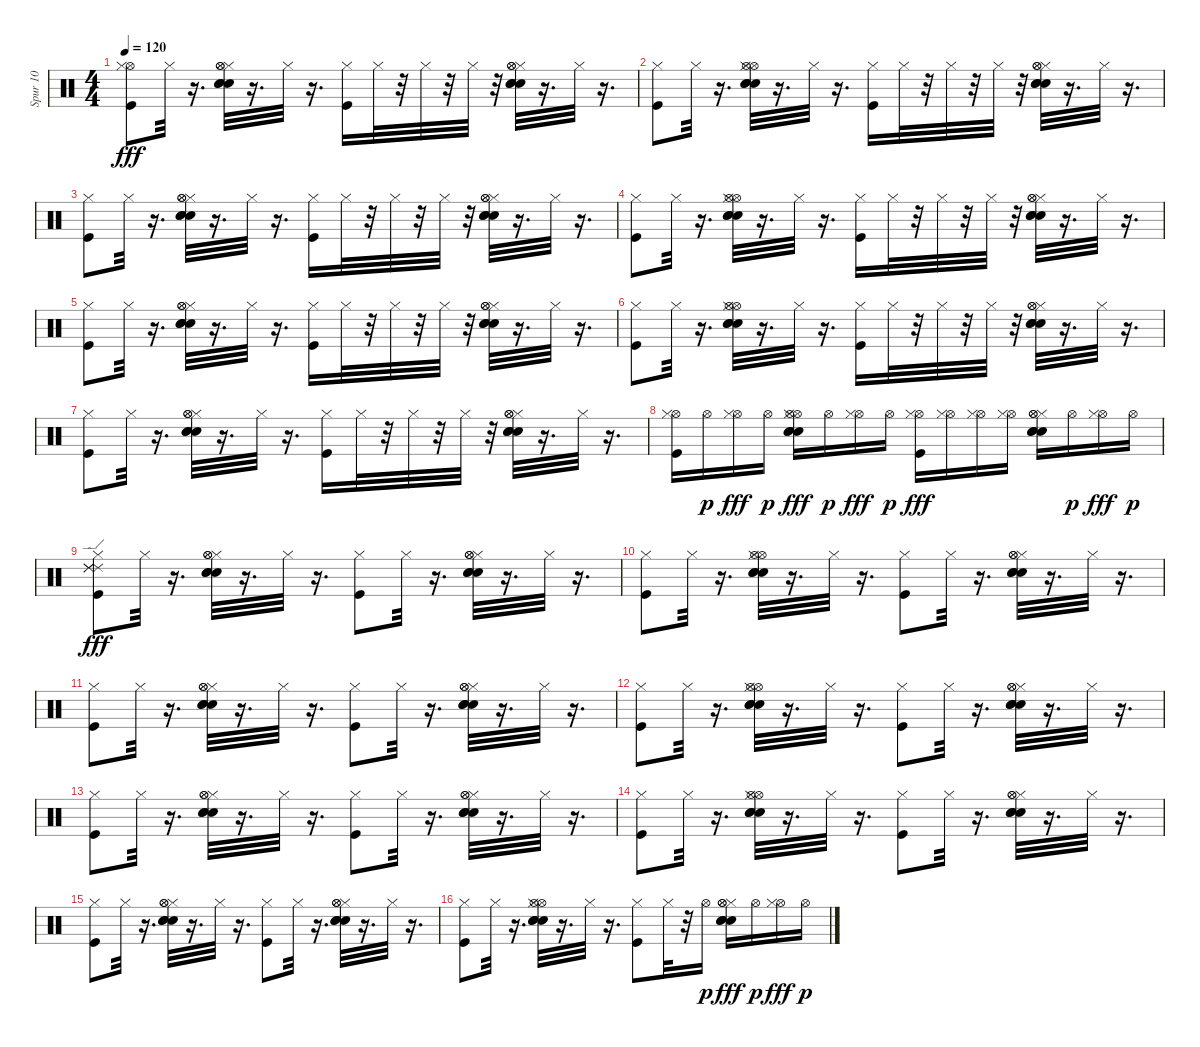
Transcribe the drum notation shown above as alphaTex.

\track ("Spur 10" "Spur 10") {instrument percussion}
\staff {score}
\articulation defaults
\ts (4 4)
\tempo 120
\clef neutral
\ks c
("Hi-Hat (open)" "Kick (hit)" "Hi-Hat (closed)").8{dy fff} "Hi-Hat (closed)".32 r.16{d} ("Snare (hit) 2" "Snare (hit) 2" "Hi-Hat (closed)" "Snare (hit) 2" "Hi-Hat (open)" "Hi-Hat (open)").32 r.16{d} "Hi-Hat (closed)".32 r.16{d} ("Hi-Hat (closed)" "Kick (hit)").16 "Hi-Hat (closed)".32 r.32 "Hi-Hat (closed)".32 r.32 "Hi-Hat (closed)".32 r.32 ("Hi-Hat (closed)" "Snare (hit) 2" "Hi-Hat (open)" "Hi-Hat (open)" "Snare (hit) 2" "Snare (hit) 2").32 r.16{d} "Hi-Hat (closed)".32 r.16{d} |
("Hi-Hat (closed)" "Kick (hit)").8 "Hi-Hat (closed)".32 r.16{d} ("Hi-Hat (open)" "Hi-Hat (closed)" "Snare (hit) 2" "Hi-Hat (open)" "Snare (hit) 2" "Snare (hit) 2").32 r.16{d} "Hi-Hat (closed)".32 r.16{d} ("Kick (hit)" "Hi-Hat (closed)").16 "Hi-Hat (closed)".32 r.32 "Hi-Hat (closed)".32 r.32 "Hi-Hat (closed)".32 r.32 ("Snare (hit) 2" "Hi-Hat (closed)" "Hi-Hat (open)" "Snare (hit) 2" "Hi-Hat (open)" "Snare (hit) 2").32 r.16{d} "Hi-Hat (closed)".32 r.16{d} |
("Kick (hit)" "Hi-Hat (closed)").8 "Hi-Hat (closed)".32 r.16{d} ("Snare (hit) 2" "Snare (hit) 2" "Hi-Hat (closed)" "Snare (hit) 2" "Hi-Hat (open)" "Hi-Hat (open)").32 r.16{d} "Hi-Hat (closed)".32 r.16{d} ("Hi-Hat (closed)" "Kick (hit)").16 "Hi-Hat (closed)".32 r.32 "Hi-Hat (closed)".32 r.32 "Hi-Hat (closed)".32 r.32 ("Hi-Hat (closed)" "Snare (hit) 2" "Hi-Hat (open)" "Hi-Hat (open)" "Snare (hit) 2" "Snare (hit) 2").32 r.16{d} "Hi-Hat (closed)".32 r.16{d} |
("Hi-Hat (closed)" "Kick (hit)").8 "Hi-Hat (closed)".32 r.16{d} ("Hi-Hat (open)" "Hi-Hat (closed)" "Snare (hit) 2" "Hi-Hat (open)" "Snare (hit) 2" "Snare (hit) 2").32 r.16{d} "Hi-Hat (closed)".32 r.16{d} ("Kick (hit)" "Hi-Hat (closed)").16 "Hi-Hat (closed)".32 r.32 "Hi-Hat (closed)".32 r.32 "Hi-Hat (closed)".32 r.32 ("Snare (hit) 2" "Hi-Hat (closed)" "Hi-Hat (open)" "Snare (hit) 2" "Hi-Hat (open)" "Snare (hit) 2").32 r.16{d} "Hi-Hat (closed)".32 r.16{d} |
("Kick (hit)" "Hi-Hat (closed)").8 "Hi-Hat (closed)".32 r.16{d} ("Snare (hit) 2" "Snare (hit) 2" "Hi-Hat (closed)" "Snare (hit) 2" "Hi-Hat (open)" "Hi-Hat (open)").32 r.16{d} "Hi-Hat (closed)".32 r.16{d} ("Hi-Hat (closed)" "Kick (hit)").16 "Hi-Hat (closed)".32 r.32 "Hi-Hat (closed)".32 r.32 "Hi-Hat (closed)".32 r.32 ("Hi-Hat (closed)" "Snare (hit) 2" "Hi-Hat (open)" "Hi-Hat (open)" "Snare (hit) 2" "Snare (hit) 2").32 r.16{d} "Hi-Hat (closed)".32 r.16{d} |
("Hi-Hat (closed)" "Kick (hit)").8 "Hi-Hat (closed)".32 r.16{d} ("Hi-Hat (open)" "Hi-Hat (closed)" "Snare (hit) 2" "Hi-Hat (open)" "Snare (hit) 2" "Snare (hit) 2").32 r.16{d} "Hi-Hat (closed)".32 r.16{d} ("Kick (hit)" "Hi-Hat (closed)").16 "Hi-Hat (closed)".32 r.32 "Hi-Hat (closed)".32 r.32 "Hi-Hat (closed)".32 r.32 ("Snare (hit) 2" "Hi-Hat (closed)" "Hi-Hat (open)" "Snare (hit) 2" "Hi-Hat (open)" "Snare (hit) 2").32 r.16{d} "Hi-Hat (closed)".32 r.16{d} |
("Kick (hit)" "Hi-Hat (closed)").8 "Hi-Hat (closed)".32 r.16{d} ("Snare (hit) 2" "Snare (hit) 2" "Hi-Hat (closed)" "Snare (hit) 2" "Hi-Hat (open)" "Hi-Hat (open)").32 r.16{d} "Hi-Hat (closed)".32 r.16{d} ("Hi-Hat (closed)" "Kick (hit)").16 "Hi-Hat (closed)".32 r.32 "Hi-Hat (closed)".32 r.32 "Hi-Hat (closed)".32 r.32 ("Hi-Hat (closed)" "Snare (hit) 2" "Hi-Hat (open)" "Hi-Hat (open)" "Snare (hit) 2" "Snare (hit) 2").32 r.16{d} "Hi-Hat (closed)".32 r.16{d} |
("Hi-Hat (open)" "Hi-Hat (closed)" "Kick (hit)").16 "Hi-Hat (open)".16{dy p} ("Hi-Hat (open)" "Hi-Hat (closed)").16{dy fff} "Hi-Hat (open)".16{dy p} ("Hi-Hat (open)" "Hi-Hat (closed)" "Snare (hit) 2" "Hi-Hat (open)" "Snare (hit) 2" "Snare (hit) 2").16{dy fff} "Hi-Hat (open)".16{dy p} ("Hi-Hat (open)" "Hi-Hat (closed)").16{dy fff} "Hi-Hat (open)".16{dy p} ("Hi-Hat (open)" "Kick (hit)" "Hi-Hat (closed)").16{dy fff} ("Hi-Hat (open)" "Hi-Hat (closed)").16 ("Hi-Hat (open)" "Hi-Hat (closed)").16 ("Hi-Hat (open)" "Hi-Hat (closed)").16 ("Snare (hit) 2" "Hi-Hat (closed)" "Hi-Hat (open)" "Snare (hit) 2" "Hi-Hat (open)" "Snare (hit) 2").16 "Hi-Hat (open)".16{dy p} ("Hi-Hat (open)" "Hi-Hat (closed)").16{dy fff} "Hi-Hat (open)".16{dy p} |
("Ride (edge) 2" "Ride (edge) 2" "Ride (edge) 2" "Kick (hit)" "Hi-Hat (closed)").8{dy fff} "Hi-Hat (closed)".32 r.16{d} ("Snare (hit) 2" "Snare (hit) 2" "Hi-Hat (closed)" "Snare (hit) 2" "Hi-Hat (open)" "Hi-Hat (open)").32 r.16{d} "Hi-Hat (closed)".32 r.16{d} ("Hi-Hat (closed)" "Kick (hit)").8 "Hi-Hat (closed)".32 r.16{d} ("Hi-Hat (closed)" "Snare (hit) 2" "Hi-Hat (open)" "Hi-Hat (open)" "Snare (hit) 2" "Snare (hit) 2").32 r.16{d} "Hi-Hat (closed)".32 r.16{d} |
("Hi-Hat (closed)" "Kick (hit)").8 "Hi-Hat (closed)".32 r.16{d} ("Hi-Hat (open)" "Hi-Hat (closed)" "Snare (hit) 2" "Hi-Hat (open)" "Snare (hit) 2" "Snare (hit) 2").32 r.16{d} "Hi-Hat (closed)".32 r.16{d} ("Kick (hit)" "Hi-Hat (closed)").8 "Hi-Hat (closed)".32 r.16{d} ("Snare (hit) 2" "Hi-Hat (closed)" "Hi-Hat (open)" "Snare (hit) 2" "Hi-Hat (open)" "Snare (hit) 2").32 r.16{d} "Hi-Hat (closed)".32 r.16{d} |
("Kick (hit)" "Hi-Hat (closed)").8 "Hi-Hat (closed)".32 r.16{d} ("Snare (hit) 2" "Snare (hit) 2" "Hi-Hat (closed)" "Snare (hit) 2" "Hi-Hat (open)" "Hi-Hat (open)").32 r.16{d} "Hi-Hat (closed)".32 r.16{d} ("Hi-Hat (closed)" "Kick (hit)").8 "Hi-Hat (closed)".32 r.16{d} ("Hi-Hat (closed)" "Snare (hit) 2" "Hi-Hat (open)" "Hi-Hat (open)" "Snare (hit) 2" "Snare (hit) 2").32 r.16{d} "Hi-Hat (closed)".32 r.16{d} |
("Hi-Hat (closed)" "Kick (hit)").8 "Hi-Hat (closed)".32 r.16{d} ("Hi-Hat (open)" "Hi-Hat (closed)" "Snare (hit) 2" "Hi-Hat (open)" "Snare (hit) 2" "Snare (hit) 2").32 r.16{d} "Hi-Hat (closed)".32 r.16{d} ("Kick (hit)" "Hi-Hat (closed)").8 "Hi-Hat (closed)".32 r.16{d} ("Snare (hit) 2" "Hi-Hat (closed)" "Hi-Hat (open)" "Snare (hit) 2" "Hi-Hat (open)" "Snare (hit) 2").32 r.16{d} "Hi-Hat (closed)".32 r.16{d} |
("Kick (hit)" "Hi-Hat (closed)").8 "Hi-Hat (closed)".32 r.16{d} ("Snare (hit) 2" "Snare (hit) 2" "Hi-Hat (closed)" "Snare (hit) 2" "Hi-Hat (open)" "Hi-Hat (open)").32 r.16{d} "Hi-Hat (closed)".32 r.16{d} ("Hi-Hat (closed)" "Kick (hit)").8 "Hi-Hat (closed)".32 r.16{d} ("Hi-Hat (closed)" "Snare (hit) 2" "Hi-Hat (open)" "Hi-Hat (open)" "Snare (hit) 2" "Snare (hit) 2").32 r.16{d} "Hi-Hat (closed)".32 r.16{d} |
("Hi-Hat (closed)" "Kick (hit)").8 "Hi-Hat (closed)".32 r.16{d} ("Hi-Hat (open)" "Hi-Hat (closed)" "Snare (hit) 2" "Hi-Hat (open)" "Snare (hit) 2" "Snare (hit) 2").32 r.16{d} "Hi-Hat (closed)".32 r.16{d} ("Kick (hit)" "Hi-Hat (closed)").8 "Hi-Hat (closed)".32 r.16{d} ("Snare (hit) 2" "Hi-Hat (closed)" "Hi-Hat (open)" "Snare (hit) 2" "Hi-Hat (open)" "Snare (hit) 2").32 r.16{d} "Hi-Hat (closed)".32 r.16{d} |
("Kick (hit)" "Hi-Hat (closed)").8 "Hi-Hat (closed)".32 r.16{d} ("Snare (hit) 2" "Snare (hit) 2" "Hi-Hat (closed)" "Snare (hit) 2" "Hi-Hat (open)" "Hi-Hat (open)").32 r.16{d} "Hi-Hat (closed)".32 r.16{d} ("Hi-Hat (closed)" "Kick (hit)").8 "Hi-Hat (closed)".32 r.16{d} ("Hi-Hat (closed)" "Snare (hit) 2" "Hi-Hat (open)" "Hi-Hat (open)" "Snare (hit) 2" "Snare (hit) 2").32 r.16{d} "Hi-Hat (closed)".32 r.16{d} |
("Hi-Hat (closed)" "Kick (hit)").8 "Hi-Hat (closed)".32 r.16{d} ("Hi-Hat (open)" "Hi-Hat (closed)" "Snare (hit) 2" "Hi-Hat (open)" "Snare (hit) 2" "Snare (hit) 2").32 r.16{d} "Hi-Hat (closed)".32 r.16{d} ("Kick (hit)" "Hi-Hat (closed)").8 "Hi-Hat (closed)".32 r.32 "Hi-Hat (open)".16{dy p} ("Snare (hit) 2" "Hi-Hat (closed)" "Hi-Hat (open)" "Snare (hit) 2" "Hi-Hat (open)" "Snare (hit) 2").16{dy fff} "Hi-Hat (open)".16{dy p} ("Hi-Hat (open)" "Hi-Hat (closed)").16{dy fff} "Hi-Hat (open)".16{dy p}
